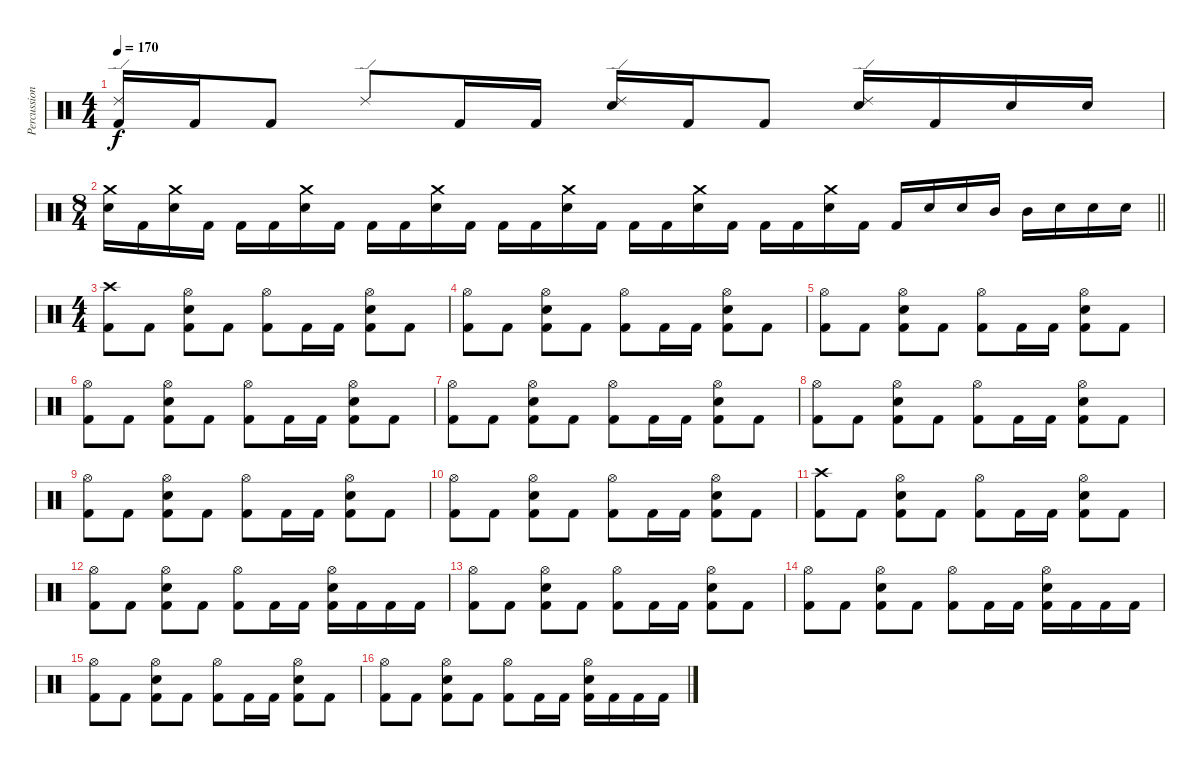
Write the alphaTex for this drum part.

\track ("Percussion" "Percussion") {instrument percussion}
\staff {score}
\articulation defaults
\ts (4 4)
\tempo 170
\clef neutral
\ks c
("Ride (edge) 2" "Kick (hit) 2").16{dy f} "Kick (hit) 2".16 "Kick (hit) 2".8 "Ride (edge) 2".8 "Kick (hit) 2".16 "Kick (hit) 2".16 ("Ride (edge) 2" "Electric Snare (hit)").16 "Kick (hit) 2".16 "Kick (hit) 2".8 ("Electric Snare (hit)" "Ride (edge) 2").16 "Kick (hit) 2".16 "Electric Snare (hit)".16 "Electric Snare (hit)".16 |
\ts (8 4)
\barLineRight lightlight
("Crash medium (hit)" "Electric Snare (hit)").16 "Kick (hit) 2".16 ("Crash medium (hit)" "Electric Snare (hit)").16 "Kick (hit) 2".16 "Kick (hit) 2".16 "Kick (hit) 2".16 ("Crash medium (hit)" "Electric Snare (hit)").16 "Kick (hit) 2".16 "Kick (hit) 2".16 "Kick (hit) 2".16 ("Crash medium (hit)" "Electric Snare (hit)").16 "Kick (hit) 2".16 "Kick (hit) 2".16 "Kick (hit) 2".16 ("Crash medium (hit)" "Electric Snare (hit)").16 "Kick (hit) 2".16 "Kick (hit) 2".16 "Kick (hit) 2".16 ("Crash medium (hit)" "Electric Snare (hit)").16 "Kick (hit) 2".16 "Kick (hit) 2".16 "Kick (hit) 2".16 ("Crash medium (hit)" "Electric Snare (hit)").16 "Kick (hit) 2".16 "Kick (hit) 2".16 "Electric Snare (hit)".16 "Electric Snare (hit)".16 "Mid Tom (hit)".16 "Mid Tom (hit)".16 "Electric Snare (hit)".16 "Electric Snare (hit)".16 "Electric Snare (hit)".16 |
\ts (4 4)
\section ("" "")
("Kick (hit) 2" "Crash high (hit)").8 "Kick (hit) 2".8 ("Kick (hit) 2" "Electric Snare (hit)" "Hi-Hat (open)").8 "Kick (hit) 2".8 ("Kick (hit) 2" "Hi-Hat (open)").8 "Kick (hit) 2".16 "Kick (hit) 2".16 ("Kick (hit) 2" "Electric Snare (hit)" "Hi-Hat (open)").8 "Kick (hit) 2".8 |
("Kick (hit) 2" "Hi-Hat (open)").8 "Kick (hit) 2".8 ("Kick (hit) 2" "Electric Snare (hit)" "Hi-Hat (open)").8 "Kick (hit) 2".8 ("Kick (hit) 2" "Hi-Hat (open)").8 "Kick (hit) 2".16 "Kick (hit) 2".16 ("Kick (hit) 2" "Electric Snare (hit)" "Hi-Hat (open)").8 "Kick (hit) 2".8 |
("Kick (hit) 2" "Hi-Hat (open)").8 "Kick (hit) 2".8 ("Kick (hit) 2" "Electric Snare (hit)" "Hi-Hat (open)").8 "Kick (hit) 2".8 ("Kick (hit) 2" "Hi-Hat (open)").8 "Kick (hit) 2".16 "Kick (hit) 2".16 ("Kick (hit) 2" "Electric Snare (hit)" "Hi-Hat (open)").8 "Kick (hit) 2".8 |
("Kick (hit) 2" "Hi-Hat (open)").8 "Kick (hit) 2".8 ("Kick (hit) 2" "Electric Snare (hit)" "Hi-Hat (open)").8 "Kick (hit) 2".8 ("Kick (hit) 2" "Hi-Hat (open)").8 "Kick (hit) 2".16 "Kick (hit) 2".16 ("Kick (hit) 2" "Electric Snare (hit)" "Hi-Hat (open)").8 "Kick (hit) 2".8 |
("Kick (hit) 2" "Hi-Hat (open)").8 "Kick (hit) 2".8 ("Kick (hit) 2" "Electric Snare (hit)" "Hi-Hat (open)").8 "Kick (hit) 2".8 ("Kick (hit) 2" "Hi-Hat (open)").8 "Kick (hit) 2".16 "Kick (hit) 2".16 ("Kick (hit) 2" "Electric Snare (hit)" "Hi-Hat (open)").8 "Kick (hit) 2".8 |
("Kick (hit) 2" "Hi-Hat (open)").8 "Kick (hit) 2".8 ("Kick (hit) 2" "Electric Snare (hit)" "Hi-Hat (open)").8 "Kick (hit) 2".8 ("Kick (hit) 2" "Hi-Hat (open)").8 "Kick (hit) 2".16 "Kick (hit) 2".16 ("Kick (hit) 2" "Electric Snare (hit)" "Hi-Hat (open)").8 "Kick (hit) 2".8 |
("Kick (hit) 2" "Hi-Hat (open)").8 "Kick (hit) 2".8 ("Kick (hit) 2" "Electric Snare (hit)" "Hi-Hat (open)").8 "Kick (hit) 2".8 ("Kick (hit) 2" "Hi-Hat (open)").8 "Kick (hit) 2".16 "Kick (hit) 2".16 ("Kick (hit) 2" "Electric Snare (hit)" "Hi-Hat (open)").8 "Kick (hit) 2".8 |
("Kick (hit) 2" "Hi-Hat (open)").8 "Kick (hit) 2".8 ("Kick (hit) 2" "Electric Snare (hit)" "Hi-Hat (open)").8 "Kick (hit) 2".8 ("Kick (hit) 2" "Hi-Hat (open)").8 "Kick (hit) 2".16 "Kick (hit) 2".16 ("Kick (hit) 2" "Electric Snare (hit)" "Hi-Hat (open)").8 "Kick (hit) 2".8 |
("Kick (hit) 2" "Crash high (hit)").8 "Kick (hit) 2".8 ("Kick (hit) 2" "Electric Snare (hit)" "Hi-Hat (open)").8 "Kick (hit) 2".8 ("Kick (hit) 2" "Hi-Hat (open)").8 "Kick (hit) 2".16 "Kick (hit) 2".16 ("Kick (hit) 2" "Electric Snare (hit)" "Hi-Hat (open)").8 "Kick (hit) 2".8 |
("Kick (hit) 2" "Hi-Hat (open)").8 "Kick (hit) 2".8 ("Kick (hit) 2" "Electric Snare (hit)" "Hi-Hat (open)").8 "Kick (hit) 2".8 ("Kick (hit) 2" "Hi-Hat (open)").8 "Kick (hit) 2".16 "Kick (hit) 2".16 ("Kick (hit) 2" "Electric Snare (hit)" "Hi-Hat (open)").16 "Kick (hit) 2".16 "Kick (hit) 2".16 "Kick (hit) 2".16 |
("Kick (hit) 2" "Hi-Hat (open)").8 "Kick (hit) 2".8 ("Kick (hit) 2" "Electric Snare (hit)" "Hi-Hat (open)").8 "Kick (hit) 2".8 ("Kick (hit) 2" "Hi-Hat (open)").8 "Kick (hit) 2".16 "Kick (hit) 2".16 ("Kick (hit) 2" "Electric Snare (hit)" "Hi-Hat (open)").8 "Kick (hit) 2".8 |
("Kick (hit) 2" "Hi-Hat (open)").8 "Kick (hit) 2".8 ("Kick (hit) 2" "Electric Snare (hit)" "Hi-Hat (open)").8 "Kick (hit) 2".8 ("Kick (hit) 2" "Hi-Hat (open)").8 "Kick (hit) 2".16 "Kick (hit) 2".16 ("Kick (hit) 2" "Electric Snare (hit)" "Hi-Hat (open)").16 "Kick (hit) 2".16 "Kick (hit) 2".16 "Kick (hit) 2".16 |
("Kick (hit) 2" "Hi-Hat (open)").8 "Kick (hit) 2".8 ("Kick (hit) 2" "Electric Snare (hit)" "Hi-Hat (open)").8 "Kick (hit) 2".8 ("Kick (hit) 2" "Hi-Hat (open)").8 "Kick (hit) 2".16 "Kick (hit) 2".16 ("Kick (hit) 2" "Electric Snare (hit)" "Hi-Hat (open)").8 "Kick (hit) 2".8 |
("Kick (hit) 2" "Hi-Hat (open)").8 "Kick (hit) 2".8 ("Kick (hit) 2" "Electric Snare (hit)" "Hi-Hat (open)").8 "Kick (hit) 2".8 ("Kick (hit) 2" "Hi-Hat (open)").8 "Kick (hit) 2".16 "Kick (hit) 2".16 ("Kick (hit) 2" "Electric Snare (hit)" "Hi-Hat (open)").16 "Kick (hit) 2".16 "Kick (hit) 2".16 "Kick (hit) 2".16
